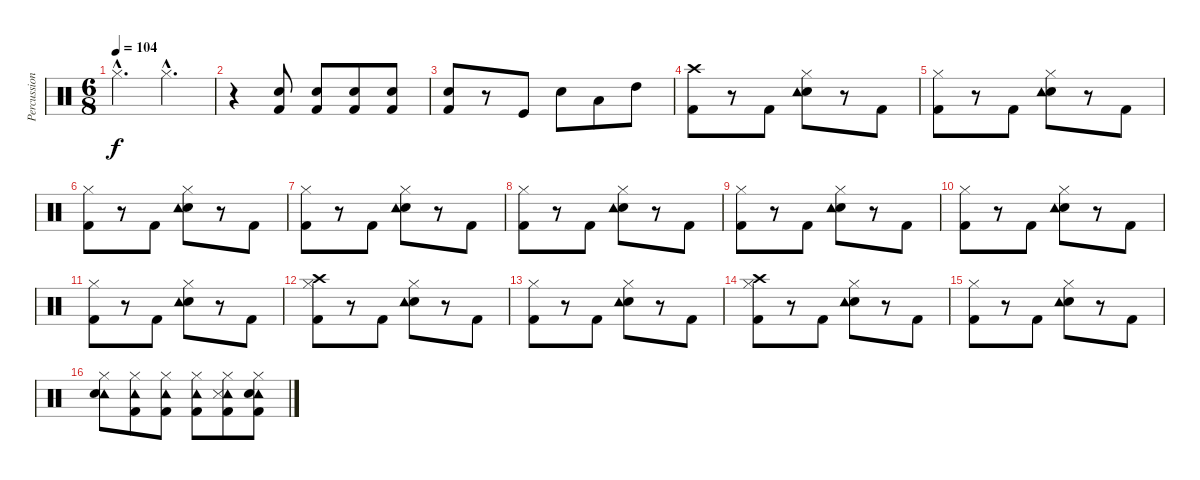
\track ("Percussion" "Percussion") {instrument percussion}
\staff {score}
\articulation defaults
\ts (6 8)
\tempo 104
\clef neutral
\ks c "Hi-Hat (closed)"{hac}.4{d dy f} "Hi-Hat (closed)"{hac}.4{d}
|
r.4 ("Snare (hit) 2" "Kick (hit) 2").8 ("Snare (hit) 2" "Kick (hit) 2").8 ("Snare (hit) 2" "Kick (hit) 2").8 ("Snare (hit) 2" "Kick (hit) 2").8 |
("Snare (hit) 2" "Kick (hit) 2").8 r.8 "Kick (hit)".8 "Snare (hit) 2".8 "Low Tom (hit)".8 "High Tom (hit)".8 |
("Crash high (hit)" "Kick (hit) 2").8 r.8 "Kick (hit) 2".8 ("Snare (hit) 2" "Tambourine (hit)" "Hi-Hat (closed)").8 r.8 "Kick (hit) 2".8 |
("Hi-Hat (closed)" "Kick (hit) 2").8 r.8 "Kick (hit) 2".8 ("Snare (hit) 2" "Tambourine (hit)" "Hi-Hat (closed)").8 r.8 "Kick (hit) 2".8 |
("Hi-Hat (closed)" "Kick (hit) 2").8 r.8 "Kick (hit) 2".8 ("Snare (hit) 2" "Tambourine (hit)" "Hi-Hat (closed)").8 r.8 "Kick (hit) 2".8 |
("Hi-Hat (closed)" "Kick (hit) 2").8 r.8 "Kick (hit) 2".8 ("Snare (hit) 2" "Tambourine (hit)" "Hi-Hat (closed)").8 r.8 "Kick (hit) 2".8 |
("Hi-Hat (closed)" "Kick (hit) 2").8 r.8 "Kick (hit) 2".8 ("Snare (hit) 2" "Tambourine (hit)" "Hi-Hat (closed)").8 r.8 "Kick (hit) 2".8 |
("Hi-Hat (closed)" "Kick (hit) 2").8 r.8 "Kick (hit) 2".8 ("Snare (hit) 2" "Tambourine (hit)" "Hi-Hat (closed)").8 r.8 "Kick (hit) 2".8 |
("Kick (hit) 2" "Hi-Hat (closed)").8 r.8 "Kick (hit) 2".8 ("Snare (hit) 2" "Tambourine (hit)" "Hi-Hat (closed)").8 r.8 "Kick (hit) 2".8 |
("Hi-Hat (closed)" "Kick (hit) 2").8 r.8 "Kick (hit) 2".8 ("Snare (hit) 2" "Tambourine (hit)" "Hi-Hat (closed)").8 r.8 "Kick (hit) 2".8 |
("Hi-Hat (closed)" "Kick (hit) 2" "Crash high (hit)").8 r.8 "Kick (hit) 2".8 ("Snare (hit) 2" "Tambourine (hit)" "Hi-Hat (closed)").8 r.8 "Kick (hit) 2".8 |
("Hi-Hat (closed)" "Kick (hit) 2").8 r.8 "Kick (hit) 2".8 ("Snare (hit) 2" "Tambourine (hit)" "Hi-Hat (closed)").8 r.8 "Kick (hit) 2".8 |
("Hi-Hat (closed)" "Kick (hit) 2" "Crash high (hit)").8 r.8 "Kick (hit) 2".8 ("Snare (hit) 2" "Tambourine (hit)" "Hi-Hat (closed)").8 r.8 "Kick (hit) 2".8 |
("Hi-Hat (closed)" "Kick (hit) 2").8 r.8 "Kick (hit) 2".8 ("Snare (hit) 2" "Tambourine (hit)" "Hi-Hat (closed)").8 r.8 "Kick (hit) 2".8 |
("Hi-Hat (closed)" "Tambourine (hit)" "Snare (hit) 2").8 ("Hi-Hat (closed)" "Tambourine (hit)" "Kick (hit) 2").8 ("Hi-Hat (closed)" "Tambourine (hit)" "Kick (hit) 2").8 ("Hi-Hat (closed)" "Tambourine (hit)" "Kick (hit) 2").8 ("Hi-Hat (closed)" "Tambourine (hit)" "Kick (hit) 2" "Snare (side stick) 3").8 ("Hi-Hat (closed)" "Tambourine (hit)" "Kick (hit) 2" "Snare (hit) 2").8
